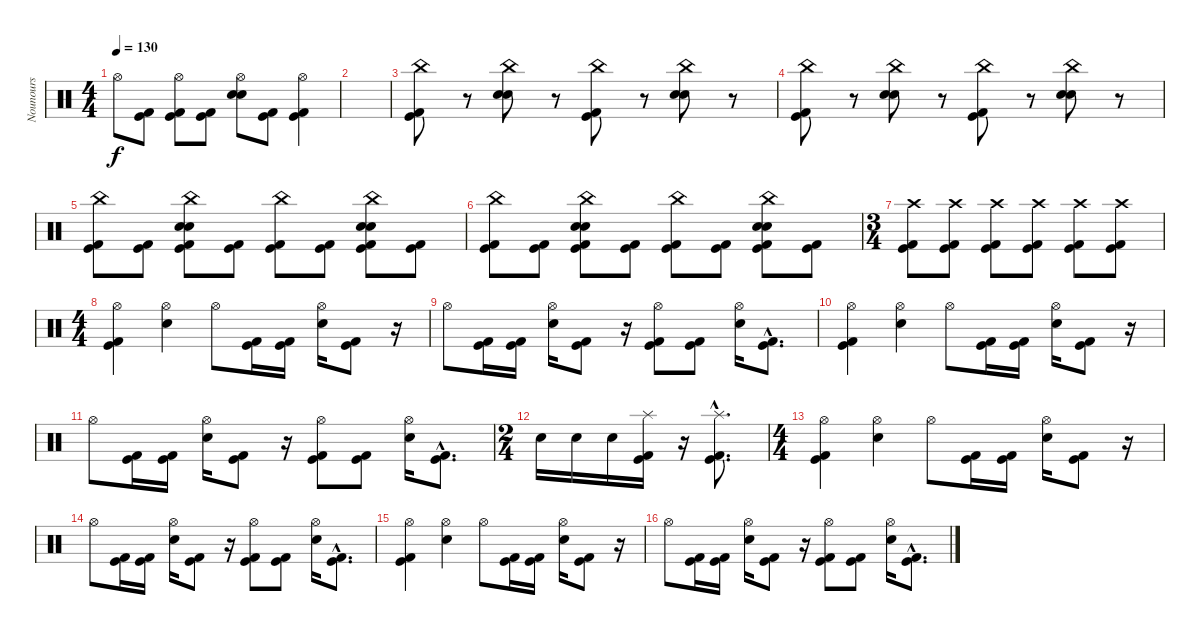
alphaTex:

\track ("Nounours" "Nounours") {instrument percussion}
\staff {score}
\articulation defaults
\ts (4 4)
\tempo 130
\clef neutral
\ks c "Hi-Hat (open)".8{dy f}
("Kick (hit) 2" "Kick (hit)").8 ("Hi-Hat (open)" "Kick (hit)" "Kick (hit) 2").8 ("Kick (hit) 2" "Kick (hit)").8 ("Hi-Hat (open)" "Snare (hit) 2" "Electric Snare (hit)").8 ("Kick (hit) 2" "Kick (hit)").8 ("Hi-Hat (open)" "Kick (hit) 2" "Kick (hit)").4 |
|
("China (hit)" "Kick (hit) 2" "Kick (hit)").8 r.8 ("China (hit)" "Snare (hit) 2" "Electric Snare (hit)").8 r.8 ("China (hit)" "Kick (hit) 2" "Kick (hit)").8 r.8 ("China (hit)" "Snare (hit) 2" "Electric Snare (hit)").8 r.8 |
("China (hit)" "Kick (hit) 2" "Kick (hit)").8 r.8 ("China (hit)" "Snare (hit) 2" "Electric Snare (hit)").8 r.8 ("China (hit)" "Kick (hit) 2" "Kick (hit)").8 r.8 ("China (hit)" "Snare (hit) 2" "Electric Snare (hit)").8 r.8 |
("China (hit)" "Kick (hit) 2" "Kick (hit)").8 ("Kick (hit)" "Kick (hit) 2").8 ("China (hit)" "Snare (hit) 2" "Electric Snare (hit)" "Kick (hit) 2" "Kick (hit)").8 ("Kick (hit) 2" "Kick (hit)").8 ("China (hit)" "Kick (hit) 2" "Kick (hit)").8 ("Kick (hit)" "Kick (hit) 2").8 ("China (hit)" "Snare (hit) 2" "Electric Snare (hit)" "Kick (hit) 2" "Kick (hit)").8 ("Kick (hit) 2" "Kick (hit)").8 |
("China (hit)" "Kick (hit) 2" "Kick (hit)").8 ("Kick (hit)" "Kick (hit) 2").8 ("China (hit)" "Snare (hit) 2" "Electric Snare (hit)" "Kick (hit) 2" "Kick (hit)").8 ("Kick (hit) 2" "Kick (hit)").8 ("China (hit)" "Kick (hit) 2" "Kick (hit)").8 ("Kick (hit)" "Kick (hit) 2").8 ("China (hit)" "Snare (hit) 2" "Electric Snare (hit)" "Kick (hit) 2" "Kick (hit)").8 ("Kick (hit) 2" "Kick (hit)").8 |
\ts (3 4)
("Crash high (hit)" "Kick (hit) 2" "Kick (hit)").8 ("Crash high (hit)" "Kick (hit)" "Kick (hit) 2").8 ("Crash high (hit)" "Kick (hit)" "Kick (hit) 2").8 ("Crash high (hit)" "Kick (hit)" "Kick (hit) 2").8 ("Crash high (hit)" "Kick (hit) 2" "Kick (hit)").8 ("Crash high (hit)" "Kick (hit) 2" "Kick (hit)").8 |
\ts (4 4)
("Hi-Hat (open)" "Kick (hit) 2" "Kick (hit)").4 ("Hi-Hat (open)" "Snare (hit) 2").4 "Hi-Hat (open)".8 ("Kick (hit) 2" "Kick (hit)").16 ("Kick (hit)" "Kick (hit) 2").16 ("Hi-Hat (open)" "Snare (hit) 2").16 ("Kick (hit)" "Kick (hit) 2").8 r.16 |
"Hi-Hat (open)".8 ("Kick (hit)" "Kick (hit) 2").16 ("Kick (hit) 2" "Kick (hit)").16 ("Hi-Hat (open)" "Snare (hit) 2").16 ("Kick (hit) 2" "Kick (hit)").8 r.16 ("Hi-Hat (open)" "Kick (hit) 2" "Kick (hit)").8 ("Kick (hit) 2" "Kick (hit)").8 ("Hi-Hat (open)" "Snare (hit) 2").16 ("Kick (hit) 2"{hac} "Kick (hit)"{hac}).8{d} |
("Hi-Hat (open)" "Kick (hit) 2" "Kick (hit)").4 ("Hi-Hat (open)" "Snare (hit) 2").4 "Hi-Hat (open)".8 ("Kick (hit) 2" "Kick (hit)").16 ("Kick (hit)" "Kick (hit) 2").16 ("Hi-Hat (open)" "Snare (hit) 2").16 ("Kick (hit)" "Kick (hit) 2").8 r.16 |
"Hi-Hat (open)".8 ("Kick (hit)" "Kick (hit) 2").16 ("Kick (hit) 2" "Kick (hit)").16 ("Hi-Hat (open)" "Snare (hit) 2").16 ("Kick (hit) 2" "Kick (hit)").8 r.16 ("Hi-Hat (open)" "Kick (hit) 2" "Kick (hit)").8 ("Kick (hit) 2" "Kick (hit)").8 ("Hi-Hat (open)" "Snare (hit) 2").16 ("Kick (hit) 2"{hac} "Kick (hit)"{hac}).8{d} |
\ts (2 4)
"Snare (hit) 2".16 "Snare (hit) 2".16 "Snare (hit) 2".16 ("Splash (hit)" "Kick (hit)" "Kick (hit) 2").16 r.16 ("Splash (hit)"{hac} "Kick (hit)"{hac} "Kick (hit) 2"{hac}).8{d} |
\ts (4 4)
("Hi-Hat (open)" "Kick (hit) 2" "Kick (hit)").4 ("Hi-Hat (open)" "Snare (hit) 2").4 "Hi-Hat (open)".8 ("Kick (hit) 2" "Kick (hit)").16 ("Kick (hit)" "Kick (hit) 2").16 ("Hi-Hat (open)" "Snare (hit) 2").16 ("Kick (hit)" "Kick (hit) 2").8 r.16 |
"Hi-Hat (open)".8 ("Kick (hit)" "Kick (hit) 2").16 ("Kick (hit) 2" "Kick (hit)").16 ("Hi-Hat (open)" "Snare (hit) 2").16 ("Kick (hit) 2" "Kick (hit)").8 r.16 ("Hi-Hat (open)" "Kick (hit) 2" "Kick (hit)").8 ("Kick (hit) 2" "Kick (hit)").8 ("Hi-Hat (open)" "Snare (hit) 2").16 ("Kick (hit) 2"{hac} "Kick (hit)"{hac}).8{d} |
("Hi-Hat (open)" "Kick (hit) 2" "Kick (hit)").4 ("Hi-Hat (open)" "Snare (hit) 2").4 "Hi-Hat (open)".8 ("Kick (hit) 2" "Kick (hit)").16 ("Kick (hit)" "Kick (hit) 2").16 ("Hi-Hat (open)" "Snare (hit) 2").16 ("Kick (hit)" "Kick (hit) 2").8 r.16 |
"Hi-Hat (open)".8 ("Kick (hit)" "Kick (hit) 2").16 ("Kick (hit) 2" "Kick (hit)").16 ("Hi-Hat (open)" "Snare (hit) 2").16 ("Kick (hit) 2" "Kick (hit)").8 r.16 ("Hi-Hat (open)" "Kick (hit) 2" "Kick (hit)").8 ("Kick (hit) 2" "Kick (hit)").8 ("Hi-Hat (open)" "Snare (hit) 2").16 ("Kick (hit) 2"{hac} "Kick (hit)"{hac}).8{d}
